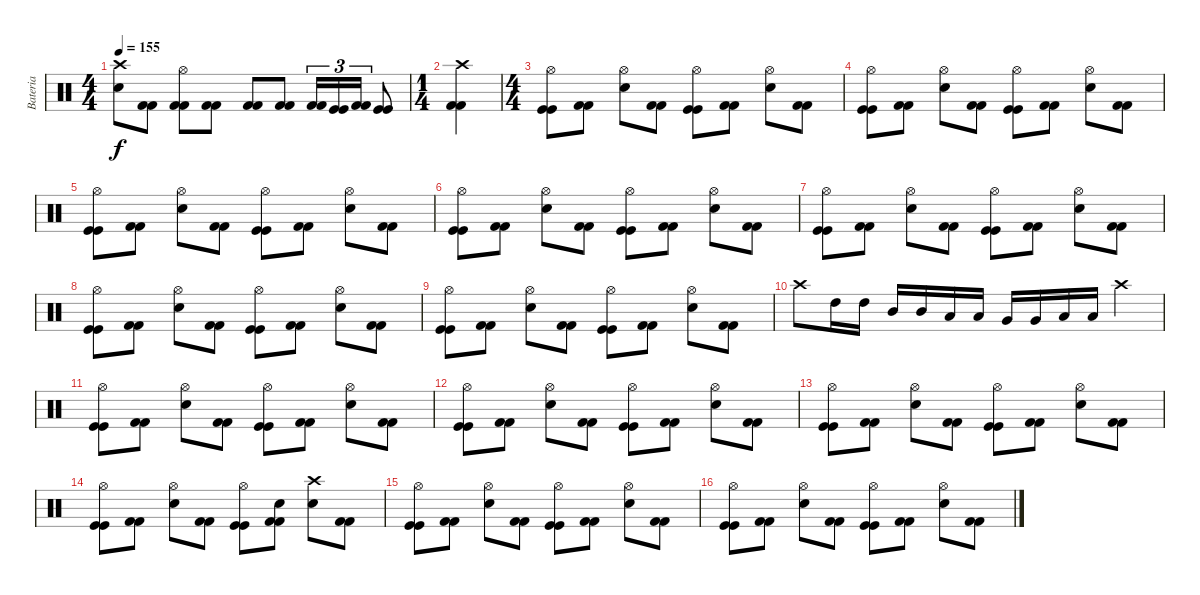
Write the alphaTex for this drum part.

\track ("Bateria" "Bateria") {instrument percussion}
\staff {score}
\articulation defaults
\ts (4 4)
\tempo 155
\clef neutral
\ks c
("Snare (hit) 2" "Crash high (hit)").8{dy f} ("Kick (hit) 2" "Kick (hit) 2").8 ("Kick (hit) 2" "Kick (hit) 2" "Hi-Hat (open)").8 ("Kick (hit) 2" "Kick (hit) 2").8 ("Kick (hit) 2" "Kick (hit) 2").8 ("Kick (hit) 2" "Kick (hit) 2").8 ("Kick (hit) 2" "Kick (hit) 2").16{tu (3 2)} ("Kick (hit)" "Kick (hit)").16{tu (3 2)} ("Kick (hit) 2" "Kick (hit) 2").16{tu (3 2)} ("Kick (hit)" "Kick (hit)").8 |
\ts (1 4)
("Kick (hit) 2" "Kick (hit) 2" "Crash high (hit)").4 |
\ts (4 4)
("Kick (hit)" "Kick (hit)" "Hi-Hat (open)").8 ("Kick (hit) 2" "Kick (hit) 2").8 ("Snare (hit) 2" "Hi-Hat (open)").8 ("Kick (hit) 2" "Kick (hit) 2").8 ("Kick (hit)" "Kick (hit)" "Hi-Hat (open)").8 ("Kick (hit) 2" "Kick (hit) 2").8 ("Snare (hit) 2" "Hi-Hat (open)").8 ("Kick (hit) 2" "Kick (hit) 2").8 |
("Kick (hit)" "Kick (hit)" "Hi-Hat (open)").8 ("Kick (hit) 2" "Kick (hit) 2").8 ("Snare (hit) 2" "Hi-Hat (open)").8 ("Kick (hit) 2" "Kick (hit) 2").8 ("Kick (hit)" "Kick (hit)" "Hi-Hat (open)").8 ("Kick (hit) 2" "Kick (hit) 2").8 ("Snare (hit) 2" "Hi-Hat (open)").8 ("Kick (hit) 2" "Kick (hit) 2").8 |
("Kick (hit)" "Kick (hit)" "Hi-Hat (open)").8 ("Kick (hit) 2" "Kick (hit) 2").8 ("Snare (hit) 2" "Hi-Hat (open)").8 ("Kick (hit) 2" "Kick (hit) 2").8 ("Kick (hit)" "Kick (hit)" "Hi-Hat (open)").8 ("Kick (hit) 2" "Kick (hit) 2").8 ("Snare (hit) 2" "Hi-Hat (open)").8 ("Kick (hit) 2" "Kick (hit) 2").8 |
("Kick (hit)" "Kick (hit)" "Hi-Hat (open)").8 ("Kick (hit) 2" "Kick (hit) 2").8 ("Snare (hit) 2" "Hi-Hat (open)").8 ("Kick (hit) 2" "Kick (hit) 2").8 ("Kick (hit)" "Kick (hit)" "Hi-Hat (open)").8 ("Kick (hit) 2" "Kick (hit) 2").8 ("Snare (hit) 2" "Hi-Hat (open)").8 ("Kick (hit) 2" "Kick (hit) 2").8 |
("Kick (hit)" "Kick (hit)" "Hi-Hat (open)").8 ("Kick (hit) 2" "Kick (hit) 2").8 ("Snare (hit) 2" "Hi-Hat (open)").8 ("Kick (hit) 2" "Kick (hit) 2").8 ("Kick (hit)" "Kick (hit)" "Hi-Hat (open)").8 ("Kick (hit) 2" "Kick (hit) 2").8 ("Snare (hit) 2" "Hi-Hat (open)").8 ("Kick (hit) 2" "Kick (hit) 2").8 |
("Kick (hit)" "Kick (hit)" "Hi-Hat (open)").8 ("Kick (hit) 2" "Kick (hit) 2").8 ("Snare (hit) 2" "Hi-Hat (open)").8 ("Kick (hit) 2" "Kick (hit) 2").8 ("Kick (hit)" "Kick (hit)" "Hi-Hat (open)").8 ("Kick (hit) 2" "Kick (hit) 2").8 ("Snare (hit) 2" "Hi-Hat (open)").8 ("Kick (hit) 2" "Kick (hit) 2").8 |
("Kick (hit)" "Kick (hit)" "Hi-Hat (open)").8 ("Kick (hit) 2" "Kick (hit) 2").8 ("Snare (hit) 2" "Hi-Hat (open)").8 ("Kick (hit) 2" "Kick (hit) 2").8 ("Kick (hit)" "Kick (hit)" "Hi-Hat (open)").8 ("Kick (hit) 2" "Kick (hit) 2").8 ("Snare (hit) 2" "Hi-Hat (open)").8 ("Kick (hit) 2" "Kick (hit) 2").8 |
"Crash high (hit)".8 "High Tom (hit)".16 "High Tom (hit)".16 "Mid Tom (hit)".16 "Mid Tom (hit)".16 "Low Tom (hit)".16 "Low Tom (hit)".16 "Very Low Tom (hit)".16 "Very Low Tom (hit)".16 "Low Floor Tom (hit)".16 "Low Floor Tom (hit)".16 "Crash high (hit)".4 |
("Kick (hit)" "Kick (hit)" "Hi-Hat (open)").8 ("Kick (hit) 2" "Kick (hit) 2").8 ("Snare (hit) 2" "Hi-Hat (open)").8 ("Kick (hit) 2" "Kick (hit) 2").8 ("Kick (hit)" "Kick (hit)" "Hi-Hat (open)").8 ("Kick (hit) 2" "Kick (hit) 2").8 ("Snare (hit) 2" "Hi-Hat (open)").8 ("Kick (hit) 2" "Kick (hit) 2").8 |
("Kick (hit)" "Kick (hit)" "Hi-Hat (open)").8 ("Kick (hit) 2" "Kick (hit) 2").8 ("Snare (hit) 2" "Hi-Hat (open)").8 ("Kick (hit) 2" "Kick (hit) 2").8 ("Kick (hit)" "Kick (hit)" "Hi-Hat (open)").8 ("Kick (hit) 2" "Kick (hit) 2").8 ("Snare (hit) 2" "Hi-Hat (open)").8 ("Kick (hit) 2" "Kick (hit) 2").8 |
("Kick (hit)" "Kick (hit)" "Hi-Hat (open)").8 ("Kick (hit) 2" "Kick (hit) 2").8 ("Snare (hit) 2" "Hi-Hat (open)").8 ("Kick (hit) 2" "Kick (hit) 2").8 ("Kick (hit)" "Kick (hit)" "Hi-Hat (open)").8 ("Kick (hit) 2" "Kick (hit) 2").8 ("Snare (hit) 2" "Hi-Hat (open)").8 ("Kick (hit) 2" "Kick (hit) 2").8 |
("Kick (hit)" "Kick (hit)" "Hi-Hat (open)").8 ("Kick (hit) 2" "Kick (hit) 2").8 ("Snare (hit) 2" "Hi-Hat (open)").8 ("Kick (hit) 2" "Kick (hit) 2").8 ("Kick (hit)" "Kick (hit)" "Hi-Hat (open)").8 ("Kick (hit) 2" "Kick (hit) 2" "Snare (hit) 2").8 ("Snare (hit) 2" "Crash high (hit)").8 ("Kick (hit) 2" "Kick (hit) 2").8 |
("Kick (hit)" "Kick (hit)" "Hi-Hat (open)").8 ("Kick (hit) 2" "Kick (hit) 2").8 ("Snare (hit) 2" "Hi-Hat (open)").8 ("Kick (hit) 2" "Kick (hit) 2").8 ("Kick (hit)" "Kick (hit)" "Hi-Hat (open)").8 ("Kick (hit) 2" "Kick (hit) 2").8 ("Snare (hit) 2" "Hi-Hat (open)").8 ("Kick (hit) 2" "Kick (hit) 2").8 |
("Kick (hit)" "Kick (hit)" "Hi-Hat (open)").8 ("Kick (hit) 2" "Kick (hit) 2").8 ("Snare (hit) 2" "Hi-Hat (open)").8 ("Kick (hit) 2" "Kick (hit) 2").8 ("Kick (hit)" "Kick (hit)" "Hi-Hat (open)").8 ("Kick (hit) 2" "Kick (hit) 2").8 ("Snare (hit) 2" "Hi-Hat (open)").8 ("Kick (hit) 2" "Kick (hit) 2").8
